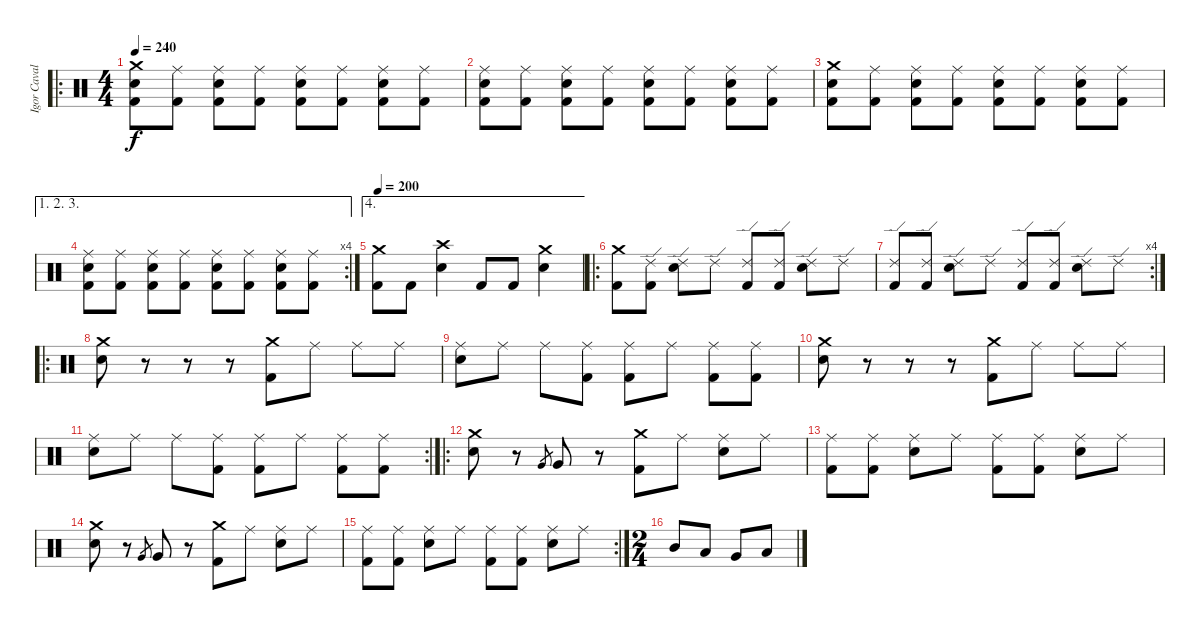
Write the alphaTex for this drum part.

\track ("Igor Cavalera" "Igor Caval") {instrument percussion}
\staff {score}
\articulation defaults
\ro
\ts (4 4)
\tempo 240
\clef neutral
\ks c
("Kick (hit) 2" "Snare (hit) 2" "Crash medium (hit)").8{dy f} ("Kick (hit) 2" "Ride (middle)").8 ("Kick (hit) 2" "Snare (hit) 2" "Ride (middle)").8 ("Kick (hit) 2" "Ride (middle)").8 ("Kick (hit) 2" "Snare (hit) 2" "Ride (middle)").8 ("Kick (hit) 2" "Ride (middle)").8 ("Kick (hit) 2" "Snare (hit) 2" "Ride (middle)").8 ("Kick (hit) 2" "Ride (middle)").8 |
("Kick (hit) 2" "Snare (hit) 2" "Ride (middle)").8 ("Kick (hit) 2" "Ride (middle)").8 ("Kick (hit) 2" "Snare (hit) 2" "Ride (middle)").8 ("Kick (hit) 2" "Ride (middle)").8 ("Kick (hit) 2" "Snare (hit) 2" "Ride (middle)").8 ("Kick (hit) 2" "Ride (middle)").8 ("Kick (hit) 2" "Snare (hit) 2" "Ride (middle)").8 ("Kick (hit) 2" "Ride (middle)").8 |
("Kick (hit) 2" "Snare (hit) 2" "Crash medium (hit)").8 ("Kick (hit) 2" "Ride (middle)").8 ("Kick (hit) 2" "Snare (hit) 2" "Ride (middle)").8 ("Kick (hit) 2" "Ride (middle)").8 ("Kick (hit) 2" "Snare (hit) 2" "Ride (middle)").8 ("Kick (hit) 2" "Ride (middle)").8 ("Kick (hit) 2" "Snare (hit) 2" "Ride (middle)").8 ("Kick (hit) 2" "Ride (middle)").8 |
\ae (1 2 3)
\rc 4
("Kick (hit) 2" "Snare (hit) 2" "Ride (middle)").8 ("Kick (hit) 2" "Ride (middle)").8 ("Kick (hit) 2" "Snare (hit) 2" "Ride (middle)").8 ("Kick (hit) 2" "Ride (middle)").8 ("Kick (hit) 2" "Snare (hit) 2" "Ride (middle)").8 ("Kick (hit) 2" "Ride (middle)").8 ("Kick (hit) 2" "Snare (hit) 2" "Ride (middle)").8 ("Kick (hit) 2" "Ride (middle)").8 |
\ae 4
\tempo 200
("Kick (hit) 2" "Crash medium (hit)").8 "Kick (hit) 2".8 ("Snare (hit) 2" "Crash high (hit)").4 "Kick (hit) 2".8 "Kick (hit) 2".8 ("Snare (hit) 2" "Crash medium (hit)").4 |
\ro
("Kick (hit) 2" "Crash medium (hit)").8 ("Kick (hit) 2" "Ride (edge) 2").8 ("Snare (hit) 2" "Ride (edge) 2").8 "Ride (edge) 2".8 ("Kick (hit) 2" "Ride (edge) 2").8 ("Kick (hit) 2" "Ride (edge) 2").8 ("Snare (hit) 2" "Ride (edge) 2").8 "Ride (edge) 2".8 |
\rc 4
("Kick (hit) 2" "Ride (edge) 2").8 ("Kick (hit) 2" "Ride (edge) 2").8 ("Snare (hit) 2" "Ride (edge) 2").8 "Ride (edge) 2".8 ("Kick (hit) 2" "Ride (edge) 2").8 ("Kick (hit) 2" "Ride (edge) 2").8 ("Snare (hit) 2" "Ride (edge) 2").8 "Ride (edge) 2".8 |
\ro
("Snare (hit) 2" "Crash medium (hit)").8 r.8 r.8 r.8 ("Kick (hit) 2" "Crash medium (hit)").8 "Ride (middle)".8 "Ride (middle)".8 "Ride (middle)".8 |
("Snare (hit) 2" "Ride (middle)").8 "Ride (middle)".8 "Ride (middle)".8 ("Kick (hit) 2" "Ride (middle)").8 ("Kick (hit) 2" "Ride (middle)").8 "Ride (middle)".8 ("Kick (hit) 2" "Ride (middle)").8 ("Kick (hit) 2" "Ride (middle)").8 |
("Snare (hit) 2" "Crash medium (hit)").8 r.8 r.8 r.8 ("Kick (hit) 2" "Crash medium (hit)").8 "Ride (middle)".8 "Ride (middle)".8 "Ride (middle)".8 |
\rc 2
("Snare (hit) 2" "Ride (middle)").8 "Ride (middle)".8 "Ride (middle)".8 ("Kick (hit) 2" "Ride (middle)").8 ("Kick (hit) 2" "Ride (middle)").8 "Ride (middle)".8 ("Kick (hit) 2" "Ride (middle)").8 ("Kick (hit) 2" "Ride (middle)").8 |
\ro
("Snare (hit) 2" "Crash medium (hit)").8 r.8 "Very Low Tom (hit)".8{gr} "Very Low Tom (hit)".8 r.8 ("Kick (hit) 2" "Crash medium (hit)").8 "Ride (middle)".8 ("Snare (hit) 2" "Ride (middle)").8 "Ride (middle)".8 |
("Kick (hit) 2" "Ride (middle)").8 ("Kick (hit) 2" "Ride (middle)").8 ("Snare (hit) 2" "Ride (middle)").8 "Ride (middle)".8 ("Kick (hit) 2" "Ride (middle)").8 ("Kick (hit) 2" "Ride (middle)").8 ("Snare (hit) 2" "Ride (middle)").8 "Ride (middle)".8 |
("Snare (hit) 2" "Crash medium (hit)").8 r.8 "Very Low Tom (hit)".8{gr} "Very Low Tom (hit)".8 r.8 ("Kick (hit) 2" "Crash medium (hit)").8 "Ride (middle)".8 ("Snare (hit) 2" "Ride (middle)").8 "Ride (middle)".8 |
\rc 2
("Kick (hit) 2" "Ride (middle)").8 ("Kick (hit) 2" "Ride (middle)").8 ("Snare (hit) 2" "Ride (middle)").8 "Ride (middle)".8 ("Kick (hit) 2" "Ride (middle)").8 ("Kick (hit) 2" "Ride (middle)").8 ("Snare (hit) 2" "Ride (middle)").8 "Ride (middle)".8 |
\ts (2 4)
"Mid Tom (hit)".8 "Low Tom (hit)".8 "Very Low Tom (hit)".8 "Low Floor Tom (hit)".8
